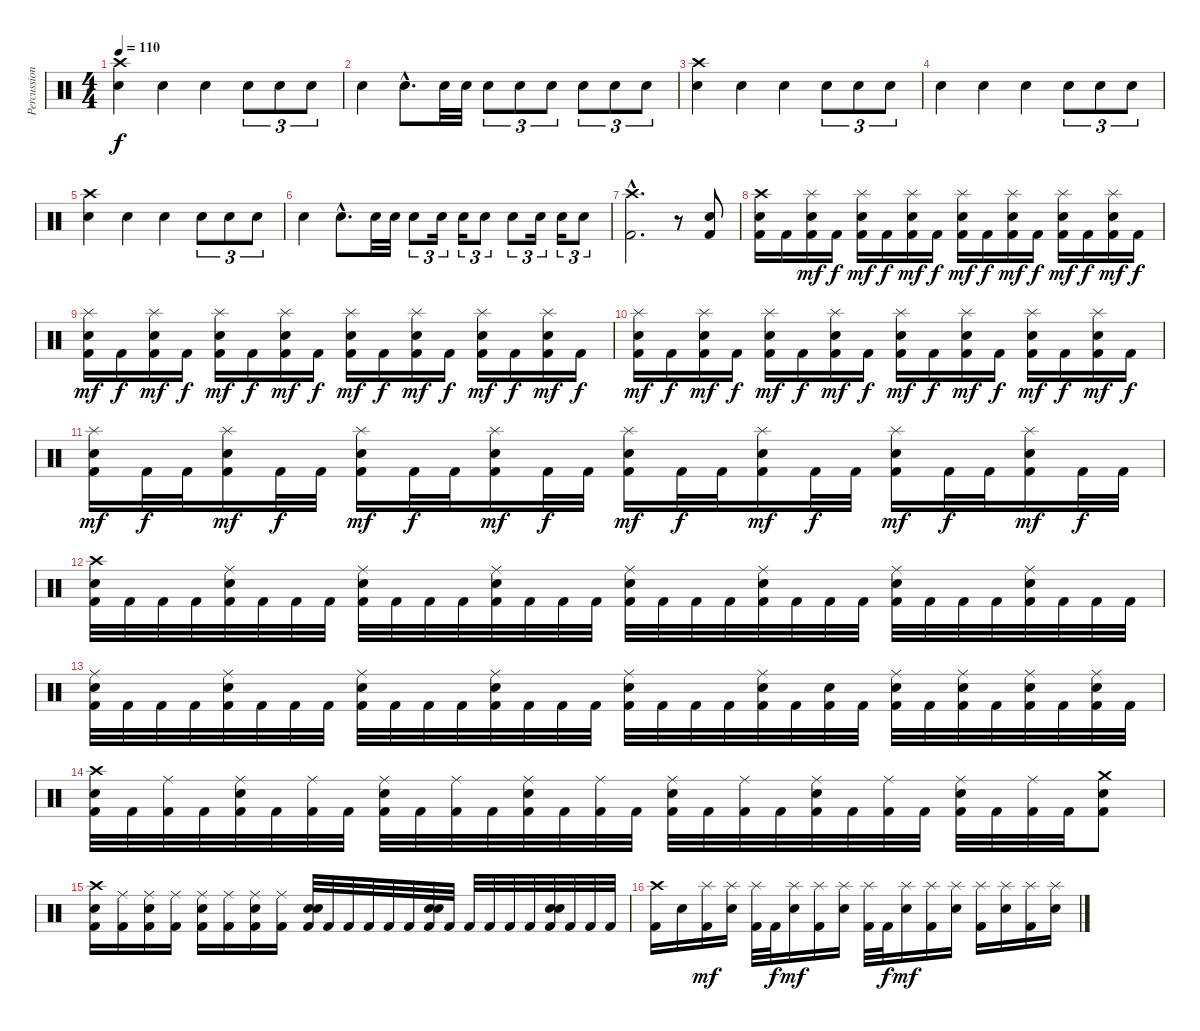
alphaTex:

\track ("Percussion" "Percussion") {instrument percussion}
\staff {score}
\articulation defaults
\ts (4 4)
\tempo 110
\clef neutral
\ks c
("Crash high (hit)" "Snare (hit) 2").4{dy f} "Snare (hit) 2".4 "Snare (hit) 2".4 "Snare (hit) 2".8{tu (3 2)} "Snare (hit) 2".8{tu (3 2)} "Snare (hit) 2".8{tu (3 2)} |
"Snare (hit) 2".4 "Snare (hit) 2"{hac}.8{d} "Snare (hit) 2".32 "Snare (hit) 2".32 "Snare (hit) 2".8{tu (3 2)} "Snare (hit) 2".8{tu (3 2)} "Snare (hit) 2".8{tu (3 2)} "Snare (hit) 2".8{tu (3 2)} "Snare (hit) 2".8{tu (3 2)} "Snare (hit) 2".8{tu (3 2)} |
("Crash high (hit)" "Snare (hit) 2").4 "Snare (hit) 2".4 "Snare (hit) 2".4 "Snare (hit) 2".8{tu (3 2)} "Snare (hit) 2".8{tu (3 2)} "Snare (hit) 2".8{tu (3 2)} |
"Snare (hit) 2".4 "Snare (hit) 2".4 "Snare (hit) 2".4 "Snare (hit) 2".8{tu (3 2)} "Snare (hit) 2".8{tu (3 2)} "Snare (hit) 2".8{tu (3 2)} |
("Crash high (hit)" "Snare (hit) 2").4 "Snare (hit) 2".4 "Snare (hit) 2".4 "Snare (hit) 2".8{tu (3 2)} "Snare (hit) 2".8{tu (3 2)} "Snare (hit) 2".8{tu (3 2)} |
"Snare (hit) 2".4 "Snare (hit) 2"{hac}.8{d} "Snare (hit) 2".32 "Snare (hit) 2".32 "Snare (hit) 2".8{tu (3 2)} "Snare (hit) 2".16{tu (3 2)} "Snare (hit) 2".16{tu (3 2)} "Snare (hit) 2".8{tu (3 2)} "Snare (hit) 2".8{tu (3 2)} "Snare (hit) 2".16{tu (3 2)} "Snare (hit) 2".16{tu (3 2)} "Snare (hit) 2".8{tu (3 2)} |
\section ("" "")
("Crash high (hit)"{hac} "Kick (hit) 2"{hac}).2{d} r.8 ("Snare (hit) 2" "Kick (hit) 2").8 |
("Crash high (hit)" "Snare (hit) 2" "Kick (hit) 2").16 "Kick (hit) 2".16 ("Splash (hit)" "Snare (hit) 2" "Kick (hit) 2").16{dy mf} "Kick (hit) 2".16{dy f} ("Splash (hit)" "Snare (hit) 2" "Kick (hit) 2").16{dy mf} "Kick (hit) 2".16{dy f} ("Splash (hit)" "Snare (hit) 2" "Kick (hit) 2").16{dy mf} "Kick (hit) 2".16{dy f} ("Splash (hit)" "Snare (hit) 2" "Kick (hit) 2").16{dy mf} "Kick (hit) 2".16{dy f} ("Splash (hit)" "Snare (hit) 2" "Kick (hit) 2").16{dy mf} "Kick (hit) 2".16{dy f} ("Splash (hit)" "Snare (hit) 2" "Kick (hit) 2").16{dy mf} "Kick (hit) 2".16{dy f} ("Splash (hit)" "Snare (hit) 2" "Kick (hit) 2").16{dy mf} "Kick (hit) 2".16{dy f} |
("Splash (hit)" "Snare (hit) 2" "Kick (hit) 2").16{dy mf} "Kick (hit) 2".16{dy f} ("Splash (hit)" "Snare (hit) 2" "Kick (hit) 2").16{dy mf} "Kick (hit) 2".16{dy f} ("Splash (hit)" "Snare (hit) 2" "Kick (hit) 2").16{dy mf} "Kick (hit) 2".16{dy f} ("Splash (hit)" "Snare (hit) 2" "Kick (hit) 2").16{dy mf} "Kick (hit) 2".16{dy f} ("Splash (hit)" "Snare (hit) 2" "Kick (hit) 2").16{dy mf} "Kick (hit) 2".16{dy f} ("Splash (hit)" "Snare (hit) 2" "Kick (hit) 2").16{dy mf} "Kick (hit) 2".16{dy f} ("Splash (hit)" "Snare (hit) 2" "Kick (hit) 2").16{dy mf} "Kick (hit) 2".16{dy f} ("Splash (hit)" "Snare (hit) 2" "Kick (hit) 2").16{dy mf} "Kick (hit) 2".16{dy f} |
("Splash (hit)" "Snare (hit) 2" "Kick (hit) 2").16{dy mf} "Kick (hit) 2".16{dy f} ("Splash (hit)" "Snare (hit) 2" "Kick (hit) 2").16{dy mf} "Kick (hit) 2".16{dy f} ("Splash (hit)" "Snare (hit) 2" "Kick (hit) 2").16{dy mf} "Kick (hit) 2".16{dy f} ("Splash (hit)" "Snare (hit) 2" "Kick (hit) 2").16{dy mf} "Kick (hit) 2".16{dy f} ("Splash (hit)" "Snare (hit) 2" "Kick (hit) 2").16{dy mf} "Kick (hit) 2".16{dy f} ("Splash (hit)" "Snare (hit) 2" "Kick (hit) 2").16{dy mf} "Kick (hit) 2".16{dy f} ("Splash (hit)" "Snare (hit) 2" "Kick (hit) 2").16{dy mf} "Kick (hit) 2".16{dy f} ("Splash (hit)" "Snare (hit) 2" "Kick (hit) 2").16{dy mf} "Kick (hit) 2".16{dy f} |
("Splash (hit)" "Snare (hit) 2" "Kick (hit) 2").16{dy mf} "Kick (hit) 2".32{dy f} "Kick (hit) 2".32 ("Splash (hit)" "Snare (hit) 2" "Kick (hit) 2").16{dy mf} "Kick (hit) 2".32{dy f} "Kick (hit) 2".32 ("Splash (hit)" "Snare (hit) 2" "Kick (hit) 2").16{dy mf} "Kick (hit) 2".32{dy f} "Kick (hit) 2".32 ("Splash (hit)" "Snare (hit) 2" "Kick (hit) 2").16{dy mf} "Kick (hit) 2".32{dy f} "Kick (hit) 2".32 ("Splash (hit)" "Snare (hit) 2" "Kick (hit) 2").16{dy mf} "Kick (hit) 2".32{dy f} "Kick (hit) 2".32 ("Splash (hit)" "Snare (hit) 2" "Kick (hit) 2").16{dy mf} "Kick (hit) 2".32{dy f} "Kick (hit) 2".32 ("Splash (hit)" "Snare (hit) 2" "Kick (hit) 2").16{dy mf} "Kick (hit) 2".32{dy f} "Kick (hit) 2".32 ("Splash (hit)" "Snare (hit) 2" "Kick (hit) 2").16{dy mf} "Kick (hit) 2".32{dy f} "Kick (hit) 2".32 |
("Crash high (hit)" "Snare (hit) 2" "Kick (hit) 2").32 "Kick (hit) 2".32 "Kick (hit) 2".32 "Kick (hit) 2".32 ("Ride (middle)" "Snare (hit) 2" "Kick (hit) 2").32 "Kick (hit) 2".32 "Kick (hit) 2".32 "Kick (hit) 2".32 ("Ride (middle)" "Snare (hit) 2" "Kick (hit) 2").32 "Kick (hit) 2".32 "Kick (hit) 2".32 "Kick (hit) 2".32 ("Ride (middle)" "Snare (hit) 2" "Kick (hit) 2").32 "Kick (hit) 2".32 "Kick (hit) 2".32 "Kick (hit) 2".32 ("Ride (middle)" "Snare (hit) 2" "Kick (hit) 2").32 "Kick (hit) 2".32 "Kick (hit) 2".32 "Kick (hit) 2".32 ("Ride (middle)" "Snare (hit) 2" "Kick (hit) 2").32 "Kick (hit) 2".32 "Kick (hit) 2".32 "Kick (hit) 2".32 ("Ride (middle)" "Snare (hit) 2" "Kick (hit) 2").32 "Kick (hit) 2".32 "Kick (hit) 2".32 "Kick (hit) 2".32 ("Ride (middle)" "Snare (hit) 2" "Kick (hit) 2").32 "Kick (hit) 2".32 "Kick (hit) 2".32 "Kick (hit) 2".32 |
("Ride (middle)" "Snare (hit) 2" "Kick (hit) 2").32 "Kick (hit) 2".32 "Kick (hit) 2".32 "Kick (hit) 2".32 ("Ride (middle)" "Snare (hit) 2" "Kick (hit) 2").32 "Kick (hit) 2".32 "Kick (hit) 2".32 "Kick (hit) 2".32 ("Ride (middle)" "Snare (hit) 2" "Kick (hit) 2").32 "Kick (hit) 2".32 "Kick (hit) 2".32 "Kick (hit) 2".32 ("Ride (middle)" "Snare (hit) 2" "Kick (hit) 2").32 "Kick (hit) 2".32 "Kick (hit) 2".32 "Kick (hit) 2".32 ("Ride (middle)" "Snare (hit) 2" "Kick (hit) 2").32 "Kick (hit) 2".32 "Kick (hit) 2".32 "Kick (hit) 2".32 ("Ride (middle)" "Snare (hit) 2" "Kick (hit) 2").32 "Kick (hit) 2".32 ("Snare (hit) 2" "Kick (hit) 2").32 "Kick (hit) 2".32 ("Ride (middle)" "Snare (hit) 2" "Kick (hit) 2").32 "Kick (hit) 2".32 ("Ride (middle)" "Snare (hit) 2" "Kick (hit) 2").32 "Kick (hit) 2".32 ("Ride (middle)" "Snare (hit) 2" "Kick (hit) 2").32 "Kick (hit) 2".32 ("Ride (middle)" "Snare (hit) 2" "Kick (hit) 2").32 "Kick (hit) 2".32 |
("Crash high (hit)" "Snare (hit) 2" "Kick (hit) 2").32 "Kick (hit) 2".32 ("Ride (middle)" "Kick (hit) 2").32 "Kick (hit) 2".32 ("Ride (middle)" "Snare (hit) 2" "Kick (hit) 2").32 "Kick (hit) 2".32 ("Ride (middle)" "Kick (hit) 2").32 "Kick (hit) 2".32 ("Ride (middle)" "Snare (hit) 2" "Kick (hit) 2").32 "Kick (hit) 2".32 ("Ride (middle)" "Kick (hit) 2").32 "Kick (hit) 2".32 ("Ride (middle)" "Snare (hit) 2" "Kick (hit) 2").32 "Kick (hit) 2".32 ("Ride (middle)" "Kick (hit) 2").32 "Kick (hit) 2".32 ("Ride (middle)" "Snare (hit) 2" "Kick (hit) 2").32 "Kick (hit) 2".32 ("Ride (middle)" "Kick (hit) 2").32 "Kick (hit) 2".32 ("Ride (middle)" "Snare (hit) 2" "Kick (hit) 2").32 "Kick (hit) 2".32 ("Ride (middle)" "Kick (hit) 2").32 "Kick (hit) 2".32 ("Ride (middle)" "Snare (hit) 2" "Kick (hit) 2").32 "Kick (hit) 2".32 ("Ride (middle)" "Kick (hit) 2").32 "Kick (hit) 2".32 ("Crash medium (hit)" "Snare (hit) 2" "Kick (hit) 2").8 |
("Crash high (hit)" "Snare (hit) 2" "Kick (hit) 2").16 ("Ride (middle)" "Kick (hit) 2").16 ("Ride (middle)" "Snare (hit) 2" "Kick (hit) 2").16 ("Ride (middle)" "Kick (hit) 2").16 ("Ride (middle)" "Snare (hit) 2" "Kick (hit) 2").16 ("Ride (middle)" "Kick (hit) 2").16 ("Ride (middle)" "Snare (hit) 2" "Kick (hit) 2").16 ("Ride (middle)" "Kick (hit) 2").16 ("Snare (hit) 2" "Snare (hit) 2" "Kick (hit) 2").32 "Kick (hit) 2".32 "Kick (hit) 2".32 "Kick (hit) 2".32 "Kick (hit) 2".32 "Kick (hit) 2".32 ("Snare (hit) 2" "Snare (hit) 2" "Kick (hit) 2").32 "Kick (hit) 2".32 "Kick (hit) 2".32 "Kick (hit) 2".32 "Kick (hit) 2".32 "Kick (hit) 2".32 ("Snare (hit) 2" "Snare (hit) 2" "Kick (hit) 2").32 "Kick (hit) 2".32 "Kick (hit) 2".32 "Kick (hit) 2".32 |
\section ("" "")
("Crash high (hit)" "Kick (hit) 2").16 "Snare (hit) 2".16 ("Splash (hit)" "Kick (hit) 2").16{dy mf} ("Splash (hit)" "Snare (hit) 2").16 ("Splash (hit)" "Kick (hit) 2").32 "Kick (hit) 2".32{dy f} ("Splash (hit)" "Snare (hit) 2").16{dy mf} ("Splash (hit)" "Kick (hit) 2").16 ("Splash (hit)" "Snare (hit) 2").16 ("Splash (hit)" "Kick (hit) 2").32 "Kick (hit) 2".32{dy f} ("Splash (hit)" "Snare (hit) 2").16{dy mf} ("Splash (hit)" "Kick (hit) 2").16 ("Splash (hit)" "Snare (hit) 2").16 ("Splash (hit)" "Kick (hit) 2").16 ("Splash (hit)" "Snare (hit) 2").16 ("Splash (hit)" "Kick (hit) 2").16 ("Splash (hit)" "Snare (hit) 2").16
